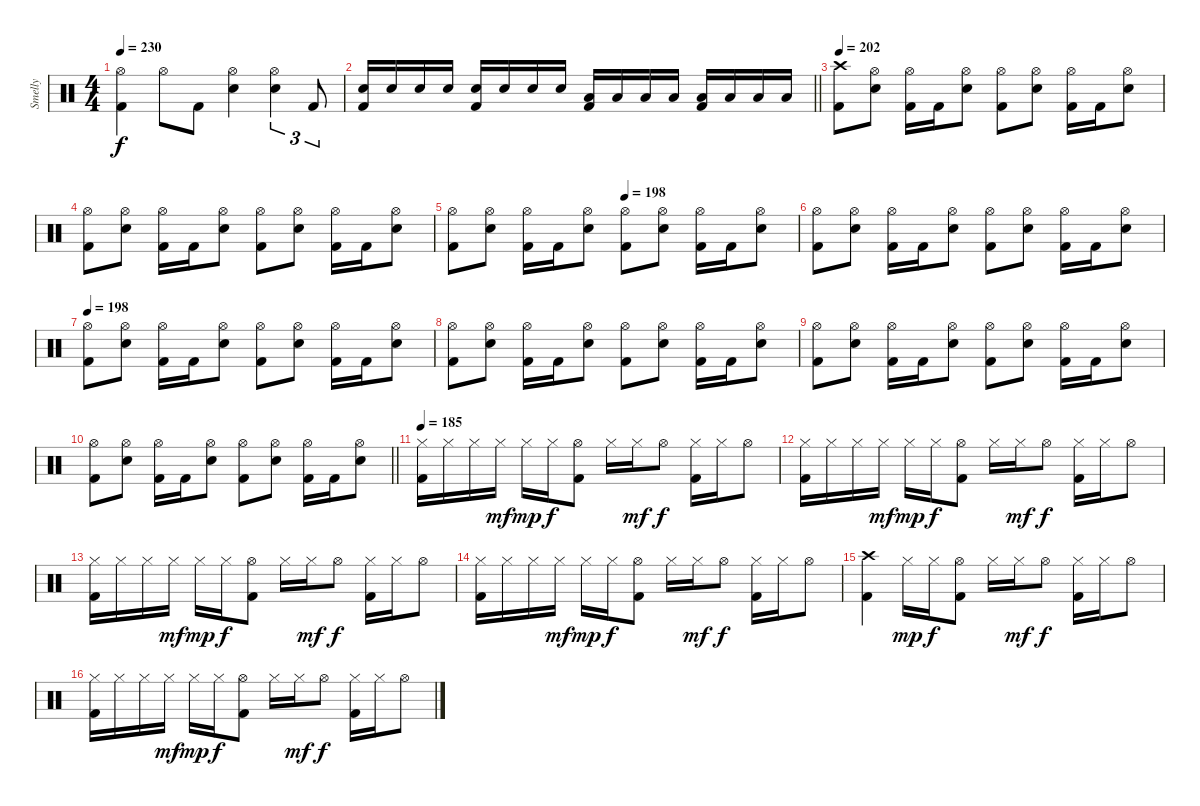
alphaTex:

\track ("Smelly" "Smelly") {instrument percussion}
\staff {score}
\articulation defaults
\ts (4 4)
\tempo 230
\clef neutral
\ks c
("Hi-Hat (open)" "Kick (hit) 2").4{dy f} "Hi-Hat (open)".8 "Kick (hit) 2".8 ("Hi-Hat (open)" "Electric Snare (hit)").4 ("Hi-Hat (open)" "Electric Snare (hit)").4{tu (3 2)} "Kick (hit) 2".8{tu (3 2)} |
\barLineRight lightlight
("Electric Snare (hit)" "Kick (hit) 2").16 "Electric Snare (hit)".16 "Electric Snare (hit)".16 "Electric Snare (hit)".16 ("Electric Snare (hit)" "Kick (hit) 2").16 "Electric Snare (hit)".16 "Electric Snare (hit)".16 "Electric Snare (hit)".16 ("Low Tom (hit)" "Kick (hit) 2").16 "Low Tom (hit)".16 "Low Tom (hit)".16 "Low Tom (hit)".16 ("Low Floor Tom (hit)" "Kick (hit) 2").16 "Low Floor Tom (hit)".16 "Low Floor Tom (hit)".16 "Low Floor Tom (hit)".16 |
\section ("" "")
\tempo 202
("Crash high (hit)" "Kick (hit) 2").8 ("Hi-Hat (open)" "Electric Snare (hit)").8 ("Hi-Hat (open)" "Kick (hit) 2").16 "Kick (hit) 2".16 ("Hi-Hat (open)" "Electric Snare (hit)").8 ("Hi-Hat (open)" "Kick (hit) 2").8 ("Hi-Hat (open)" "Electric Snare (hit)").8 ("Hi-Hat (open)" "Kick (hit) 2").16 "Kick (hit) 2".16 ("Hi-Hat (open)" "Electric Snare (hit)").8 |
("Hi-Hat (open)" "Kick (hit) 2").8 ("Hi-Hat (open)" "Electric Snare (hit)").8 ("Hi-Hat (open)" "Kick (hit) 2").16 "Kick (hit) 2".16 ("Hi-Hat (open)" "Electric Snare (hit)").8 ("Hi-Hat (open)" "Kick (hit) 2").8 ("Hi-Hat (open)" "Electric Snare (hit)").8 ("Hi-Hat (open)" "Kick (hit) 2").16 "Kick (hit) 2".16 ("Hi-Hat (open)" "Electric Snare (hit)").8 |
\tempo (198 0.5)
("Hi-Hat (open)" "Kick (hit) 2").8 ("Hi-Hat (open)" "Electric Snare (hit)").8 ("Hi-Hat (open)" "Kick (hit) 2").16 "Kick (hit) 2".16 ("Hi-Hat (open)" "Electric Snare (hit)").8 ("Hi-Hat (open)" "Kick (hit) 2").8 ("Hi-Hat (open)" "Electric Snare (hit)").8 ("Hi-Hat (open)" "Kick (hit) 2").16 "Kick (hit) 2".16 ("Hi-Hat (open)" "Electric Snare (hit)").8 |
("Hi-Hat (open)" "Kick (hit) 2").8 ("Hi-Hat (open)" "Electric Snare (hit)").8 ("Hi-Hat (open)" "Kick (hit) 2").16 "Kick (hit) 2".16 ("Hi-Hat (open)" "Electric Snare (hit)").8 ("Hi-Hat (open)" "Kick (hit) 2").8 ("Hi-Hat (open)" "Electric Snare (hit)").8 ("Hi-Hat (open)" "Kick (hit) 2").16 "Kick (hit) 2".16 ("Hi-Hat (open)" "Electric Snare (hit)").8 |
\tempo 198
("Hi-Hat (open)" "Kick (hit) 2").8 ("Hi-Hat (open)" "Electric Snare (hit)").8 ("Hi-Hat (open)" "Kick (hit) 2").16 "Kick (hit) 2".16 ("Hi-Hat (open)" "Electric Snare (hit)").8 ("Hi-Hat (open)" "Kick (hit) 2").8 ("Hi-Hat (open)" "Electric Snare (hit)").8 ("Hi-Hat (open)" "Kick (hit) 2").16 "Kick (hit) 2".16 ("Hi-Hat (open)" "Electric Snare (hit)").8 |
("Hi-Hat (open)" "Kick (hit) 2").8 ("Hi-Hat (open)" "Electric Snare (hit)").8 ("Hi-Hat (open)" "Kick (hit) 2").16 "Kick (hit) 2".16 ("Hi-Hat (open)" "Electric Snare (hit)").8 ("Hi-Hat (open)" "Kick (hit) 2").8 ("Hi-Hat (open)" "Electric Snare (hit)").8 ("Hi-Hat (open)" "Kick (hit) 2").16 "Kick (hit) 2".16 ("Hi-Hat (open)" "Electric Snare (hit)").8 |
("Hi-Hat (open)" "Kick (hit) 2").8 ("Hi-Hat (open)" "Electric Snare (hit)").8 ("Hi-Hat (open)" "Kick (hit) 2").16 "Kick (hit) 2".16 ("Hi-Hat (open)" "Electric Snare (hit)").8 ("Hi-Hat (open)" "Kick (hit) 2").8 ("Hi-Hat (open)" "Electric Snare (hit)").8 ("Hi-Hat (open)" "Kick (hit) 2").16 "Kick (hit) 2".16 ("Hi-Hat (open)" "Electric Snare (hit)").8 |
\barLineRight lightlight
("Hi-Hat (open)" "Kick (hit) 2").8 ("Hi-Hat (open)" "Electric Snare (hit)").8 ("Hi-Hat (open)" "Kick (hit) 2").16 "Kick (hit) 2".16 ("Hi-Hat (open)" "Electric Snare (hit)").8 ("Hi-Hat (open)" "Kick (hit) 2").8 ("Hi-Hat (open)" "Electric Snare (hit)").8 ("Hi-Hat (open)" "Kick (hit) 2").16 "Kick (hit) 2".16 ("Hi-Hat (open)" "Electric Snare (hit)").8 |
\section ("" "")
\tempo 185
("Hi-Hat (closed)" "Kick (hit) 2").16 "Hi-Hat (closed)".16 "Hi-Hat (closed)".16 "Hi-Hat (closed)".16{dy mf} "Hi-Hat (closed)".16{dy mp} "Hi-Hat (closed)".16{dy f} ("Hi-Hat (open)" "Kick (hit) 2").8 "Hi-Hat (closed)".16 "Hi-Hat (closed)".16{dy mf} "Hi-Hat (open)".8{dy f} ("Hi-Hat (closed)" "Kick (hit) 2").16 "Hi-Hat (closed)".16 "Hi-Hat (open)".8 |
("Hi-Hat (closed)" "Kick (hit) 2").16 "Hi-Hat (closed)".16 "Hi-Hat (closed)".16 "Hi-Hat (closed)".16{dy mf} "Hi-Hat (closed)".16{dy mp} "Hi-Hat (closed)".16{dy f} ("Hi-Hat (open)" "Kick (hit) 2").8 "Hi-Hat (closed)".16 "Hi-Hat (closed)".16{dy mf} "Hi-Hat (open)".8{dy f} ("Hi-Hat (closed)" "Kick (hit) 2").16 "Hi-Hat (closed)".16 "Hi-Hat (open)".8 |
("Hi-Hat (closed)" "Kick (hit) 2").16 "Hi-Hat (closed)".16 "Hi-Hat (closed)".16 "Hi-Hat (closed)".16{dy mf} "Hi-Hat (closed)".16{dy mp} "Hi-Hat (closed)".16{dy f} ("Hi-Hat (open)" "Kick (hit) 2").8 "Hi-Hat (closed)".16 "Hi-Hat (closed)".16{dy mf} "Hi-Hat (open)".8{dy f} ("Hi-Hat (closed)" "Kick (hit) 2").16 "Hi-Hat (closed)".16 "Hi-Hat (open)".8 |
("Hi-Hat (closed)" "Kick (hit) 2").16 "Hi-Hat (closed)".16 "Hi-Hat (closed)".16 "Hi-Hat (closed)".16{dy mf} "Hi-Hat (closed)".16{dy mp} "Hi-Hat (closed)".16{dy f} ("Hi-Hat (open)" "Kick (hit) 2").8 "Hi-Hat (closed)".16 "Hi-Hat (closed)".16{dy mf} "Hi-Hat (open)".8{dy f} ("Hi-Hat (closed)" "Kick (hit) 2").16 "Hi-Hat (closed)".16 "Hi-Hat (open)".8 |
("Crash high (hit)" "Kick (hit) 2").4 "Hi-Hat (closed)".16{dy mp} "Hi-Hat (closed)".16{dy f} ("Hi-Hat (open)" "Kick (hit) 2").8 "Hi-Hat (closed)".16 "Hi-Hat (closed)".16{dy mf} "Hi-Hat (open)".8{dy f} ("Hi-Hat (closed)" "Kick (hit) 2").16 "Hi-Hat (closed)".16 "Hi-Hat (open)".8 |
("Hi-Hat (closed)" "Kick (hit) 2").16 "Hi-Hat (closed)".16 "Hi-Hat (closed)".16 "Hi-Hat (closed)".16{dy mf} "Hi-Hat (closed)".16{dy mp} "Hi-Hat (closed)".16{dy f} ("Hi-Hat (open)" "Kick (hit) 2").8 "Hi-Hat (closed)".16 "Hi-Hat (closed)".16{dy mf} "Hi-Hat (open)".8{dy f} ("Hi-Hat (closed)" "Kick (hit) 2").16 "Hi-Hat (closed)".16 "Hi-Hat (open)".8
